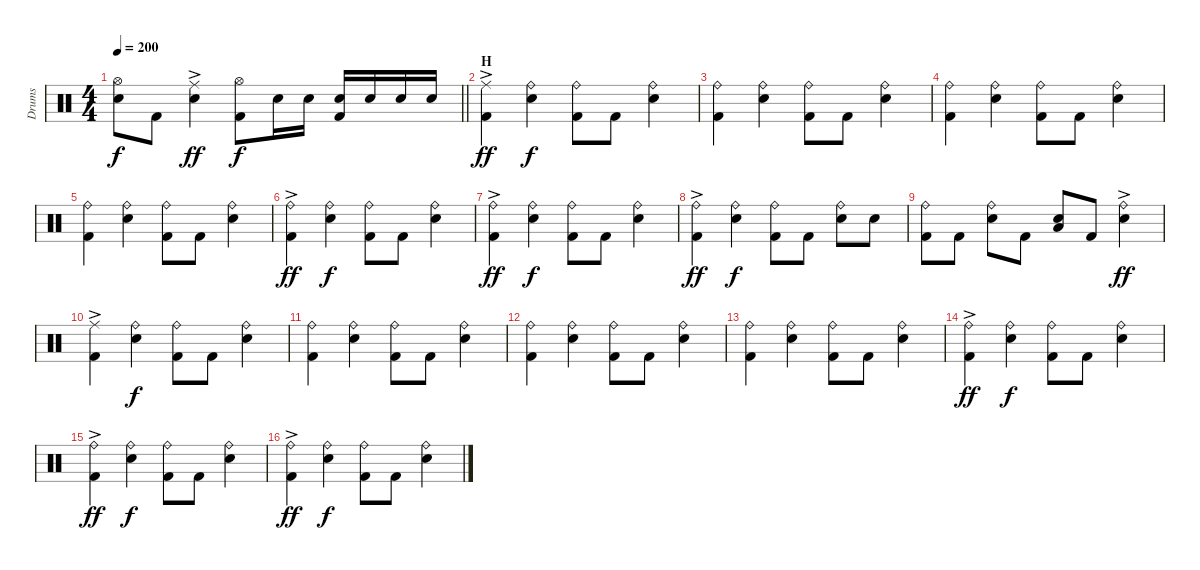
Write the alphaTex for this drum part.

\track ("Drums" "Drums") {instrument percussion}
\staff {score}
\articulation defaults
\ts (4 4)
\tempo 200
\clef neutral
\barLineRight lightlight
\ks c
("Hi-Hat (open)" "Snare (hit) 2").8{dy f} "Kick (hit) 2".8 ("Ride (middle)"{ac} "Snare (hit) 2").4{dy ff} ("Hi-Hat (open)" "Kick (hit) 2").8{dy f} "Snare (hit) 2".16 "Snare (hit) 2".16 ("Snare (hit) 2" "Kick (hit) 2").16 "Snare (hit) 2".16 "Snare (hit) 2".16 "Snare (hit) 2".16 |
\section ("" "H")
("Ride (middle)"{ac} "Kick (hit) 2").4{dy ff} ("Ride (bell)" "Snare (hit) 2").4{dy f} ("Ride (bell)" "Kick (hit) 2").8 "Kick (hit) 2".8 ("Ride (bell)" "Snare (hit) 2").4 |
("Ride (bell)" "Kick (hit) 2").4 ("Ride (bell)" "Snare (hit) 2").4 ("Ride (bell)" "Kick (hit) 2").8 "Kick (hit) 2".8 ("Ride (bell)" "Snare (hit) 2").4 |
("Ride (bell)" "Kick (hit) 2").4 ("Ride (bell)" "Snare (hit) 2").4 ("Ride (bell)" "Kick (hit) 2").8 "Kick (hit) 2".8 ("Ride (bell)" "Snare (hit) 2").4 |
("Ride (bell)" "Kick (hit) 2").4 ("Ride (bell)" "Snare (hit) 2").4 ("Ride (bell)" "Kick (hit) 2").8 "Kick (hit) 2".8 ("Ride (bell)" "Snare (hit) 2").4 |
("Ride (bell)"{ac} "Kick (hit) 2").4{dy ff} ("Ride (bell)" "Snare (hit) 2").4{dy f} ("Ride (bell)" "Kick (hit) 2").8 "Kick (hit) 2".8 ("Ride (bell)" "Snare (hit) 2").4 |
("Ride (bell)"{ac} "Kick (hit) 2").4{dy ff} ("Ride (bell)" "Snare (hit) 2").4{dy f} ("Ride (bell)" "Kick (hit) 2").8 "Kick (hit) 2".8 ("Ride (bell)" "Snare (hit) 2").4 |
("Ride (bell)"{ac} "Kick (hit) 2").4{dy ff} ("Ride (bell)" "Snare (hit) 2").4{dy f} ("Ride (bell)" "Kick (hit) 2").8 "Kick (hit) 2".8 ("Ride (bell)" "Snare (hit) 2").8 "Snare (hit) 2".8 |
("Ride (bell)" "Kick (hit) 2").8 "Kick (hit) 2".8 ("Ride (bell)" "Snare (hit) 2").8 "Kick (hit) 2".8 ("Snare (hit) 2" "Low Tom (hit)").8 "Kick (hit) 2".8 ("Ride (bell)"{ac} "Snare (hit) 2").4{dy ff} |
("Ride (middle)"{ac} "Kick (hit) 2").4 ("Ride (bell)" "Snare (hit) 2").4{dy f} ("Ride (bell)" "Kick (hit) 2").8 "Kick (hit) 2".8 ("Ride (bell)" "Snare (hit) 2").4 |
("Ride (bell)" "Kick (hit) 2").4 ("Ride (bell)" "Snare (hit) 2").4 ("Ride (bell)" "Kick (hit) 2").8 "Kick (hit) 2".8 ("Ride (bell)" "Snare (hit) 2").4 |
("Ride (bell)" "Kick (hit) 2").4 ("Ride (bell)" "Snare (hit) 2").4 ("Ride (bell)" "Kick (hit) 2").8 "Kick (hit) 2".8 ("Ride (bell)" "Snare (hit) 2").4 |
("Ride (bell)" "Kick (hit) 2").4 ("Ride (bell)" "Snare (hit) 2").4 ("Ride (bell)" "Kick (hit) 2").8 "Kick (hit) 2".8 ("Ride (bell)" "Snare (hit) 2").4 |
("Ride (bell)"{ac} "Kick (hit) 2").4{dy ff} ("Ride (bell)" "Snare (hit) 2").4{dy f} ("Ride (bell)" "Kick (hit) 2").8 "Kick (hit) 2".8 ("Ride (bell)" "Snare (hit) 2").4 |
("Ride (bell)"{ac} "Kick (hit) 2").4{dy ff} ("Ride (bell)" "Snare (hit) 2").4{dy f} ("Ride (bell)" "Kick (hit) 2").8 "Kick (hit) 2".8 ("Ride (bell)" "Snare (hit) 2").4 |
("Ride (bell)"{ac} "Kick (hit) 2").4{dy ff} ("Ride (bell)" "Snare (hit) 2").4{dy f} ("Ride (bell)" "Kick (hit) 2").8 "Kick (hit) 2".8 ("Ride (bell)" "Snare (hit) 2").4
